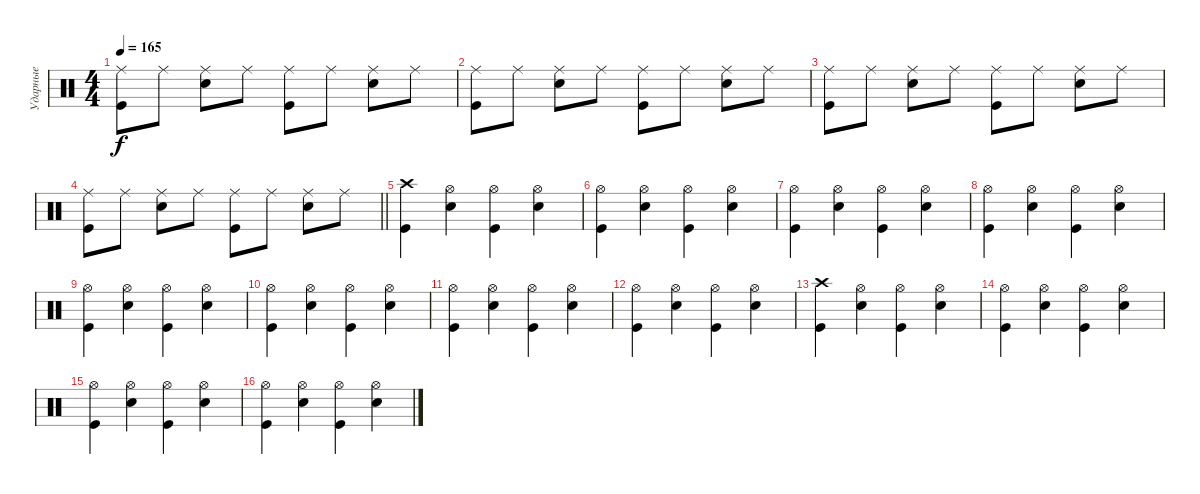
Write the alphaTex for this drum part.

\track ("Ударные" "Ударные") {instrument percussion}
\staff {score}
\articulation defaults
\ts (4 4)
\tempo 165
\clef neutral
\ks c
("Ride (middle)" "Kick (hit)").8{dy f} "Ride (middle)".8 ("Ride (middle)" "Snare (hit) 2").8 "Ride (middle)".8 ("Ride (middle)" "Kick (hit)").8 "Ride (middle)".8 ("Ride (middle)" "Snare (hit) 2").8 "Ride (middle)".8 |
("Ride (middle)" "Kick (hit)").8 "Ride (middle)".8 ("Ride (middle)" "Snare (hit) 2").8 "Ride (middle)".8 ("Ride (middle)" "Kick (hit)").8 "Ride (middle)".8 ("Ride (middle)" "Snare (hit) 2").8 "Ride (middle)".8 |
("Ride (middle)" "Kick (hit)").8 "Ride (middle)".8 ("Ride (middle)" "Snare (hit) 2").8 "Ride (middle)".8 ("Ride (middle)" "Kick (hit)").8 "Ride (middle)".8 ("Ride (middle)" "Snare (hit) 2").8 "Ride (middle)".8 |
\barLineRight lightlight
("Ride (middle)" "Kick (hit)").8 "Ride (middle)".8 ("Ride (middle)" "Snare (hit) 2").8 "Ride (middle)".8 ("Ride (middle)" "Kick (hit)").8 "Ride (middle)".8 ("Ride (middle)" "Snare (hit) 2").8 "Ride (middle)".8 |
("Crash high (hit)" "Kick (hit)").4 ("Hi-Hat (open)" "Snare (hit) 2").4 ("Hi-Hat (open)" "Kick (hit)").4 ("Hi-Hat (open)" "Snare (hit) 2").4 |
("Hi-Hat (open)" "Kick (hit)").4 ("Hi-Hat (open)" "Snare (hit) 2").4 ("Hi-Hat (open)" "Kick (hit)").4 ("Hi-Hat (open)" "Snare (hit) 2").4 |
("Hi-Hat (open)" "Kick (hit)").4 ("Hi-Hat (open)" "Snare (hit) 2").4 ("Hi-Hat (open)" "Kick (hit)").4 ("Hi-Hat (open)" "Snare (hit) 2").4 |
("Hi-Hat (open)" "Kick (hit)").4 ("Hi-Hat (open)" "Snare (hit) 2").4 ("Hi-Hat (open)" "Kick (hit)").4 ("Hi-Hat (open)" "Snare (hit) 2").4 |
("Hi-Hat (open)" "Kick (hit)").4 ("Hi-Hat (open)" "Snare (hit) 2").4 ("Hi-Hat (open)" "Kick (hit)").4 ("Hi-Hat (open)" "Snare (hit) 2").4 |
("Hi-Hat (open)" "Kick (hit)").4 ("Hi-Hat (open)" "Snare (hit) 2").4 ("Hi-Hat (open)" "Kick (hit)").4 ("Hi-Hat (open)" "Snare (hit) 2").4 |
("Hi-Hat (open)" "Kick (hit)").4 ("Hi-Hat (open)" "Snare (hit) 2").4 ("Hi-Hat (open)" "Kick (hit)").4 ("Hi-Hat (open)" "Snare (hit) 2").4 |
("Hi-Hat (open)" "Kick (hit)").4 ("Hi-Hat (open)" "Snare (hit) 2").4 ("Hi-Hat (open)" "Kick (hit)").4 ("Hi-Hat (open)" "Snare (hit) 2").4 |
("Crash high (hit)" "Kick (hit)").4 ("Hi-Hat (open)" "Snare (hit) 2").4 ("Hi-Hat (open)" "Kick (hit)").4 ("Hi-Hat (open)" "Snare (hit) 2").4 |
("Hi-Hat (open)" "Kick (hit)").4 ("Hi-Hat (open)" "Snare (hit) 2").4 ("Hi-Hat (open)" "Kick (hit)").4 ("Hi-Hat (open)" "Snare (hit) 2").4 |
("Hi-Hat (open)" "Kick (hit)").4 ("Hi-Hat (open)" "Snare (hit) 2").4 ("Hi-Hat (open)" "Kick (hit)").4 ("Hi-Hat (open)" "Snare (hit) 2").4 |
("Hi-Hat (open)" "Kick (hit)").4 ("Hi-Hat (open)" "Snare (hit) 2").4 ("Hi-Hat (open)" "Kick (hit)").4 ("Hi-Hat (open)" "Snare (hit) 2").4
